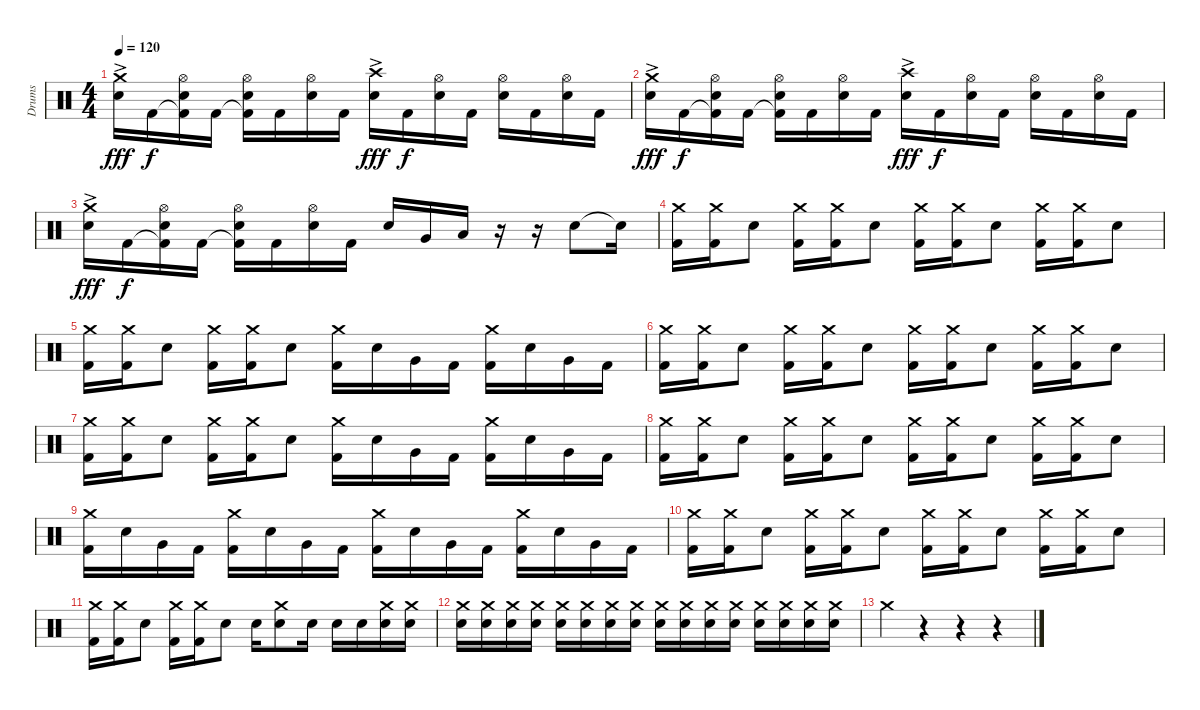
\track ("Drums" "Drums") {instrument percussion}
\staff {score}
\articulation defaults
\ts (4 4)
\tempo 120
\clef neutral
\ks c
("Electric Snare (hit)"{ac} "Crash medium (hit)").16{dy fff} "Kick (hit) 2".16{dy f} ("Kick (hit) 2"{t} "Hi-Hat (open)" "Electric Snare (hit)").16 "Kick (hit) 2".16 ("Kick (hit) 2"{t} "Hi-Hat (open)" "Electric Snare (hit)").16 "Kick (hit) 2".16 ("Hi-Hat (open)" "Electric Snare (hit)").16 "Kick (hit) 2".16 ("Electric Snare (hit)"{ac} "Crash high (hit)").16{dy fff} "Kick (hit) 2".16{dy f} ("Hi-Hat (open)" "Electric Snare (hit)").16 "Kick (hit) 2".16 ("Hi-Hat (open)" "Electric Snare (hit)").16 "Kick (hit) 2".16 ("Hi-Hat (open)" "Electric Snare (hit)").16 "Kick (hit) 2".16 |
("Electric Snare (hit)"{ac} "Crash medium (hit)").16{dy fff} "Kick (hit) 2".16{dy f} ("Kick (hit) 2"{t} "Hi-Hat (open)" "Electric Snare (hit)").16 "Kick (hit) 2".16 ("Kick (hit) 2"{t} "Hi-Hat (open)" "Electric Snare (hit)").16 "Kick (hit) 2".16 ("Hi-Hat (open)" "Electric Snare (hit)").16 "Kick (hit) 2".16 ("Electric Snare (hit)"{ac} "Crash high (hit)").16{dy fff} "Kick (hit) 2".16{dy f} ("Hi-Hat (open)" "Electric Snare (hit)").16 "Kick (hit) 2".16 ("Hi-Hat (open)" "Electric Snare (hit)").16 "Kick (hit) 2".16 ("Hi-Hat (open)" "Electric Snare (hit)").16 "Kick (hit) 2".16 |
("Electric Snare (hit)"{ac} "Crash medium (hit)").16{dy fff} "Kick (hit) 2".16{dy f} ("Kick (hit) 2"{t} "Hi-Hat (open)" "Electric Snare (hit)").16 "Kick (hit) 2".16 ("Kick (hit) 2"{t} "Hi-Hat (open)" "Electric Snare (hit)").16 "Kick (hit) 2".16 ("Hi-Hat (open)" "Electric Snare (hit)").16 "Kick (hit) 2".16 "Electric Snare (hit)".16 "Very Low Tom (hit)".16 "Low Tom (hit)".16 r.16 r.16 "Electric Snare (hit)".8 "Snare (hit)"{t}.16 |
("Crash medium (hit)" "Kick (hit) 2").16 ("Crash medium (hit)" "Kick (hit) 2").16 "Electric Snare (hit)".8 ("Crash medium (hit)" "Kick (hit) 2").16 ("Crash medium (hit)" "Kick (hit) 2").16 "Electric Snare (hit)".8 ("Crash medium (hit)" "Kick (hit) 2").16 ("Crash medium (hit)" "Kick (hit) 2").16 "Electric Snare (hit)".8 ("Crash medium (hit)" "Kick (hit) 2").16 ("Crash medium (hit)" "Kick (hit) 2").16 "Electric Snare (hit)".8 |
("Crash medium (hit)" "Kick (hit) 2").16 ("Crash medium (hit)" "Kick (hit) 2").16 "Electric Snare (hit)".8 ("Crash medium (hit)" "Kick (hit) 2").16 ("Crash medium (hit)" "Kick (hit) 2").16 "Electric Snare (hit)".8 ("Crash medium (hit)" "Kick (hit) 2").16 "Electric Snare (hit)".16 "Very Low Tom (hit)".16 "Kick (hit) 2".16 ("Crash medium (hit)" "Kick (hit) 2").16 "Electric Snare (hit)".16 "Very Low Tom (hit)".16 "Kick (hit) 2".16 |
("Crash medium (hit)" "Kick (hit) 2").16 ("Crash medium (hit)" "Kick (hit) 2").16 "Electric Snare (hit)".8 ("Crash medium (hit)" "Kick (hit) 2").16 ("Crash medium (hit)" "Kick (hit) 2").16 "Electric Snare (hit)".8 ("Crash medium (hit)" "Kick (hit) 2").16 ("Crash medium (hit)" "Kick (hit) 2").16 "Electric Snare (hit)".8 ("Crash medium (hit)" "Kick (hit) 2").16 ("Crash medium (hit)" "Kick (hit) 2").16 "Electric Snare (hit)".8 |
("Crash medium (hit)" "Kick (hit) 2").16 ("Crash medium (hit)" "Kick (hit) 2").16 "Electric Snare (hit)".8 ("Crash medium (hit)" "Kick (hit) 2").16 ("Crash medium (hit)" "Kick (hit) 2").16 "Electric Snare (hit)".8 ("Crash medium (hit)" "Kick (hit) 2").16 "Electric Snare (hit)".16 "Very Low Tom (hit)".16 "Kick (hit) 2".16 ("Crash medium (hit)" "Kick (hit) 2").16 "Electric Snare (hit)".16 "Very Low Tom (hit)".16 "Kick (hit) 2".16 |
("Crash medium (hit)" "Kick (hit) 2").16 ("Crash medium (hit)" "Kick (hit) 2").16 "Electric Snare (hit)".8 ("Crash medium (hit)" "Kick (hit) 2").16 ("Crash medium (hit)" "Kick (hit) 2").16 "Electric Snare (hit)".8 ("Crash medium (hit)" "Kick (hit) 2").16 ("Crash medium (hit)" "Kick (hit) 2").16 "Electric Snare (hit)".8 ("Crash medium (hit)" "Kick (hit) 2").16 ("Crash medium (hit)" "Kick (hit) 2").16 "Electric Snare (hit)".8 |
("Crash medium (hit)" "Kick (hit) 2").16 "Electric Snare (hit)".16 "Very Low Tom (hit)".16 "Kick (hit) 2".16 ("Crash medium (hit)" "Kick (hit) 2").16 "Electric Snare (hit)".16 "Very Low Tom (hit)".16 "Kick (hit) 2".16 ("Crash medium (hit)" "Kick (hit) 2").16 "Electric Snare (hit)".16 "Very Low Tom (hit)".16 "Kick (hit) 2".16 ("Crash medium (hit)" "Kick (hit) 2").16 "Electric Snare (hit)".16 "Very Low Tom (hit)".16 "Kick (hit) 2".16 |
("Crash medium (hit)" "Kick (hit) 2").16 ("Crash medium (hit)" "Kick (hit) 2").16 "Electric Snare (hit)".8 ("Crash medium (hit)" "Kick (hit) 2").16 ("Crash medium (hit)" "Kick (hit) 2").16 "Electric Snare (hit)".8 ("Crash medium (hit)" "Kick (hit) 2").16 ("Crash medium (hit)" "Kick (hit) 2").16 "Electric Snare (hit)".8 ("Crash medium (hit)" "Kick (hit) 2").16 ("Crash medium (hit)" "Kick (hit) 2").16 "Electric Snare (hit)".8 |
("Crash medium (hit)" "Kick (hit) 2").16 ("Crash medium (hit)" "Kick (hit) 2").16 "Electric Snare (hit)".8 ("Crash medium (hit)" "Kick (hit) 2").16 ("Crash medium (hit)" "Kick (hit) 2").16 "Electric Snare (hit)".8 "Electric Snare (hit)".16 ("Crash medium (hit)" "Electric Snare (hit)").8 "Electric Snare (hit)".16 "Electric Snare (hit)".16 "Electric Snare (hit)".16 ("Crash medium (hit)" "Electric Snare (hit)").16 ("Crash medium (hit)" "Electric Snare (hit)").16 |
("Crash medium (hit)" "Electric Snare (hit)").16 ("Crash medium (hit)" "Electric Snare (hit)").16 ("Crash medium (hit)" "Electric Snare (hit)").16 ("Crash medium (hit)" "Electric Snare (hit)").16 ("Crash medium (hit)" "Electric Snare (hit)").16 ("Crash medium (hit)" "Electric Snare (hit)").16 ("Crash medium (hit)" "Electric Snare (hit)").16 ("Crash medium (hit)" "Electric Snare (hit)").16 ("Crash medium (hit)" "Electric Snare (hit)").16 ("Crash medium (hit)" "Electric Snare (hit)").16 ("Crash medium (hit)" "Electric Snare (hit)").16 ("Crash medium (hit)" "Electric Snare (hit)").16 ("Crash medium (hit)" "Electric Snare (hit)").16 ("Crash medium (hit)" "Electric Snare (hit)").16 ("Crash medium (hit)" "Electric Snare (hit)").16 ("Crash medium (hit)" "Electric Snare (hit)").16 |
"Crash medium (hit)".4 r.4 r.4 r.4
